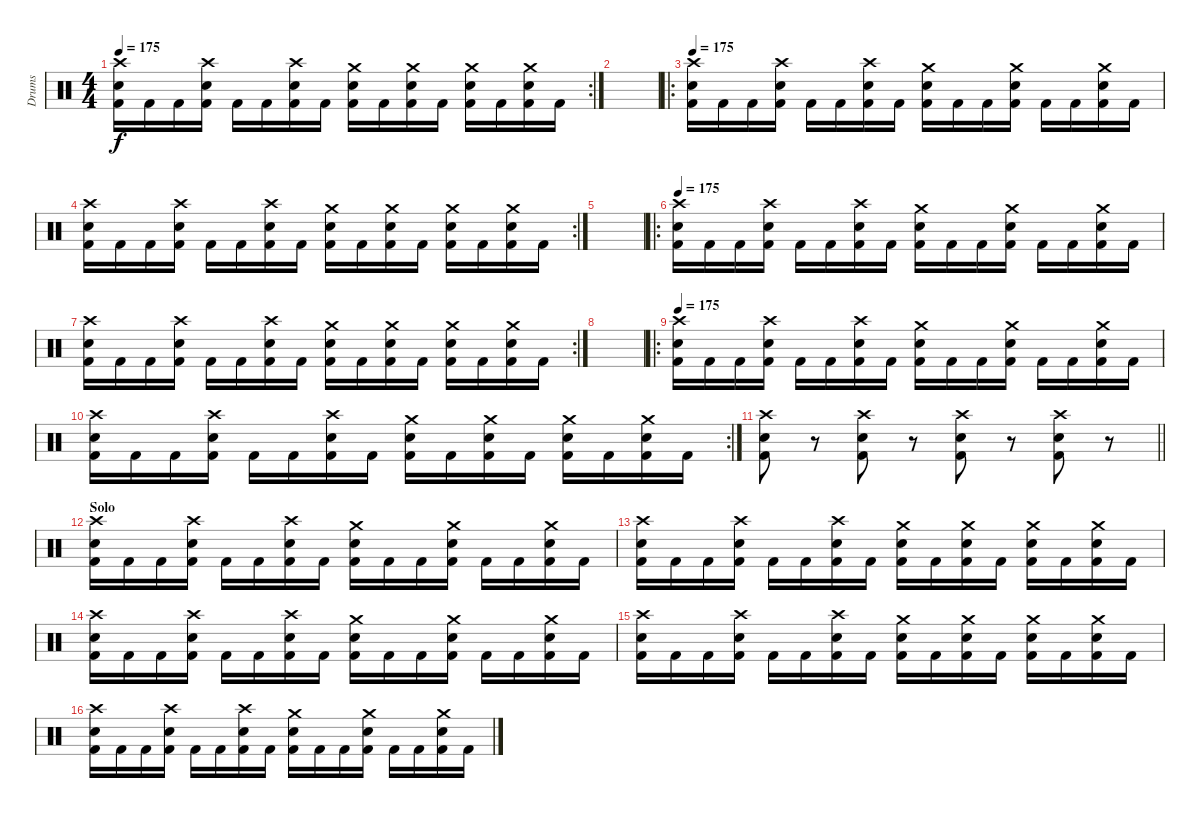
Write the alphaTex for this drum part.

\track ("Drums" "Drums") {instrument percussion}
\staff {score}
\articulation defaults
\rc 2
\ts (4 4)
\tempo 175
\clef neutral
\ks c
("Crash high (hit)" "Snare (hit) 2" "Kick (hit) 2").16{dy f} "Kick (hit) 2".16 "Kick (hit) 2".16 ("Crash high (hit)" "Snare (hit) 2" "Kick (hit) 2").16 "Kick (hit) 2".16 "Kick (hit) 2".16 ("Crash high (hit)" "Snare (hit) 2" "Kick (hit) 2").16 "Kick (hit) 2".16 ("Crash medium (hit)" "Snare (hit) 2" "Kick (hit) 2").16 "Kick (hit) 2".16 ("Crash medium (hit)" "Snare (hit) 2" "Kick (hit) 2").16 "Kick (hit) 2".16 ("Crash medium (hit)" "Snare (hit) 2" "Kick (hit) 2").16 "Kick (hit) 2".16 ("Crash medium (hit)" "Snare (hit) 2" "Kick (hit) 2").16 "Kick (hit) 2".16 |
|
\ro
\tempo 175
("Crash high (hit)" "Snare (hit) 2" "Kick (hit) 2").16 "Kick (hit) 2".16 "Kick (hit) 2".16 ("Crash high (hit)" "Snare (hit) 2" "Kick (hit) 2").16 "Kick (hit) 2".16 "Kick (hit) 2".16 ("Crash high (hit)" "Snare (hit) 2" "Kick (hit) 2").16 "Kick (hit) 2".16 ("Crash medium (hit)" "Snare (hit) 2" "Kick (hit) 2").16 "Kick (hit) 2".16 "Kick (hit) 2".16 ("Crash medium (hit)" "Snare (hit) 2" "Kick (hit) 2").16 "Kick (hit) 2".16 "Kick (hit) 2".16 ("Crash medium (hit)" "Snare (hit) 2" "Kick (hit) 2").16 "Kick (hit) 2".16 |
\rc 2
("Crash high (hit)" "Snare (hit) 2" "Kick (hit) 2").16 "Kick (hit) 2".16 "Kick (hit) 2".16 ("Crash high (hit)" "Snare (hit) 2" "Kick (hit) 2").16 "Kick (hit) 2".16 "Kick (hit) 2".16 ("Crash high (hit)" "Snare (hit) 2" "Kick (hit) 2").16 "Kick (hit) 2".16 ("Crash medium (hit)" "Snare (hit) 2" "Kick (hit) 2").16 "Kick (hit) 2".16 ("Crash medium (hit)" "Snare (hit) 2" "Kick (hit) 2").16 "Kick (hit) 2".16 ("Crash medium (hit)" "Snare (hit) 2" "Kick (hit) 2").16 "Kick (hit) 2".16 ("Crash medium (hit)" "Snare (hit) 2" "Kick (hit) 2").16 "Kick (hit) 2".16 |
|
\ro
\tempo 175
("Crash high (hit)" "Snare (hit) 2" "Kick (hit) 2").16 "Kick (hit) 2".16 "Kick (hit) 2".16 ("Crash high (hit)" "Snare (hit) 2" "Kick (hit) 2").16 "Kick (hit) 2".16 "Kick (hit) 2".16 ("Crash high (hit)" "Snare (hit) 2" "Kick (hit) 2").16 "Kick (hit) 2".16 ("Crash medium (hit)" "Snare (hit) 2" "Kick (hit) 2").16 "Kick (hit) 2".16 "Kick (hit) 2".16 ("Crash medium (hit)" "Snare (hit) 2" "Kick (hit) 2").16 "Kick (hit) 2".16 "Kick (hit) 2".16 ("Crash medium (hit)" "Snare (hit) 2" "Kick (hit) 2").16 "Kick (hit) 2".16 |
\rc 2
("Crash high (hit)" "Snare (hit) 2" "Kick (hit) 2").16 "Kick (hit) 2".16 "Kick (hit) 2".16 ("Crash high (hit)" "Snare (hit) 2" "Kick (hit) 2").16 "Kick (hit) 2".16 "Kick (hit) 2".16 ("Crash high (hit)" "Snare (hit) 2" "Kick (hit) 2").16 "Kick (hit) 2".16 ("Crash medium (hit)" "Snare (hit) 2" "Kick (hit) 2").16 "Kick (hit) 2".16 ("Crash medium (hit)" "Snare (hit) 2" "Kick (hit) 2").16 "Kick (hit) 2".16 ("Crash medium (hit)" "Snare (hit) 2" "Kick (hit) 2").16 "Kick (hit) 2".16 ("Crash medium (hit)" "Snare (hit) 2" "Kick (hit) 2").16 "Kick (hit) 2".16 |
|
\ro
\tempo 175
("Crash high (hit)" "Snare (hit) 2" "Kick (hit) 2").16 "Kick (hit) 2".16 "Kick (hit) 2".16 ("Crash high (hit)" "Snare (hit) 2" "Kick (hit) 2").16 "Kick (hit) 2".16 "Kick (hit) 2".16 ("Crash high (hit)" "Snare (hit) 2" "Kick (hit) 2").16 "Kick (hit) 2".16 ("Crash medium (hit)" "Snare (hit) 2" "Kick (hit) 2").16 "Kick (hit) 2".16 "Kick (hit) 2".16 ("Crash medium (hit)" "Snare (hit) 2" "Kick (hit) 2").16 "Kick (hit) 2".16 "Kick (hit) 2".16 ("Crash medium (hit)" "Snare (hit) 2" "Kick (hit) 2").16 "Kick (hit) 2".16 |
\rc 2
("Crash high (hit)" "Snare (hit) 2" "Kick (hit) 2").16 "Kick (hit) 2".16 "Kick (hit) 2".16 ("Crash high (hit)" "Snare (hit) 2" "Kick (hit) 2").16 "Kick (hit) 2".16 "Kick (hit) 2".16 ("Crash high (hit)" "Snare (hit) 2" "Kick (hit) 2").16 "Kick (hit) 2".16 ("Crash medium (hit)" "Snare (hit) 2" "Kick (hit) 2").16 "Kick (hit) 2".16 ("Crash medium (hit)" "Snare (hit) 2" "Kick (hit) 2").16 "Kick (hit) 2".16 ("Crash medium (hit)" "Snare (hit) 2" "Kick (hit) 2").16 "Kick (hit) 2".16 ("Crash medium (hit)" "Snare (hit) 2" "Kick (hit) 2").16 "Kick (hit) 2".16 |
\barLineRight lightlight
("Crash high (hit)" "Snare (hit) 2" "Kick (hit) 2").8 r.8 ("Crash high (hit)" "Snare (hit) 2" "Kick (hit) 2").8 r.8 ("Crash high (hit)" "Snare (hit) 2" "Kick (hit) 2").8 r.8 ("Crash high (hit)" "Snare (hit) 2" "Kick (hit) 2").8 r.8 |
\section ("" "Solo")
("Crash high (hit)" "Snare (hit) 2" "Kick (hit) 2").16 "Kick (hit) 2".16 "Kick (hit) 2".16 ("Crash high (hit)" "Snare (hit) 2" "Kick (hit) 2").16 "Kick (hit) 2".16 "Kick (hit) 2".16 ("Crash high (hit)" "Snare (hit) 2" "Kick (hit) 2").16 "Kick (hit) 2".16 ("Crash medium (hit)" "Snare (hit) 2" "Kick (hit) 2").16 "Kick (hit) 2".16 "Kick (hit) 2".16 ("Crash medium (hit)" "Snare (hit) 2" "Kick (hit) 2").16 "Kick (hit) 2".16 "Kick (hit) 2".16 ("Crash medium (hit)" "Snare (hit) 2" "Kick (hit) 2").16 "Kick (hit) 2".16 |
("Crash high (hit)" "Snare (hit) 2" "Kick (hit) 2").16 "Kick (hit) 2".16 "Kick (hit) 2".16 ("Crash high (hit)" "Snare (hit) 2" "Kick (hit) 2").16 "Kick (hit) 2".16 "Kick (hit) 2".16 ("Crash high (hit)" "Snare (hit) 2" "Kick (hit) 2").16 "Kick (hit) 2".16 ("Crash medium (hit)" "Snare (hit) 2" "Kick (hit) 2").16 "Kick (hit) 2".16 ("Crash medium (hit)" "Snare (hit) 2" "Kick (hit) 2").16 "Kick (hit) 2".16 ("Crash medium (hit)" "Snare (hit) 2" "Kick (hit) 2").16 "Kick (hit) 2".16 ("Crash medium (hit)" "Snare (hit) 2" "Kick (hit) 2").16 "Kick (hit) 2".16 |
("Crash high (hit)" "Snare (hit) 2" "Kick (hit) 2").16 "Kick (hit) 2".16 "Kick (hit) 2".16 ("Crash high (hit)" "Snare (hit) 2" "Kick (hit) 2").16 "Kick (hit) 2".16 "Kick (hit) 2".16 ("Crash high (hit)" "Snare (hit) 2" "Kick (hit) 2").16 "Kick (hit) 2".16 ("Crash medium (hit)" "Snare (hit) 2" "Kick (hit) 2").16 "Kick (hit) 2".16 "Kick (hit) 2".16 ("Crash medium (hit)" "Snare (hit) 2" "Kick (hit) 2").16 "Kick (hit) 2".16 "Kick (hit) 2".16 ("Crash medium (hit)" "Snare (hit) 2" "Kick (hit) 2").16 "Kick (hit) 2".16 |
("Crash high (hit)" "Snare (hit) 2" "Kick (hit) 2").16 "Kick (hit) 2".16 "Kick (hit) 2".16 ("Crash high (hit)" "Snare (hit) 2" "Kick (hit) 2").16 "Kick (hit) 2".16 "Kick (hit) 2".16 ("Crash high (hit)" "Snare (hit) 2" "Kick (hit) 2").16 "Kick (hit) 2".16 ("Crash medium (hit)" "Snare (hit) 2" "Kick (hit) 2").16 "Kick (hit) 2".16 ("Crash medium (hit)" "Snare (hit) 2" "Kick (hit) 2").16 "Kick (hit) 2".16 ("Crash medium (hit)" "Snare (hit) 2" "Kick (hit) 2").16 "Kick (hit) 2".16 ("Crash medium (hit)" "Snare (hit) 2" "Kick (hit) 2").16 "Kick (hit) 2".16 |
("Crash high (hit)" "Snare (hit) 2" "Kick (hit) 2").16 "Kick (hit) 2".16 "Kick (hit) 2".16 ("Crash high (hit)" "Snare (hit) 2" "Kick (hit) 2").16 "Kick (hit) 2".16 "Kick (hit) 2".16 ("Crash high (hit)" "Snare (hit) 2" "Kick (hit) 2").16 "Kick (hit) 2".16 ("Crash medium (hit)" "Snare (hit) 2" "Kick (hit) 2").16 "Kick (hit) 2".16 "Kick (hit) 2".16 ("Crash medium (hit)" "Snare (hit) 2" "Kick (hit) 2").16 "Kick (hit) 2".16 "Kick (hit) 2".16 ("Crash medium (hit)" "Snare (hit) 2" "Kick (hit) 2").16 "Kick (hit) 2".16
